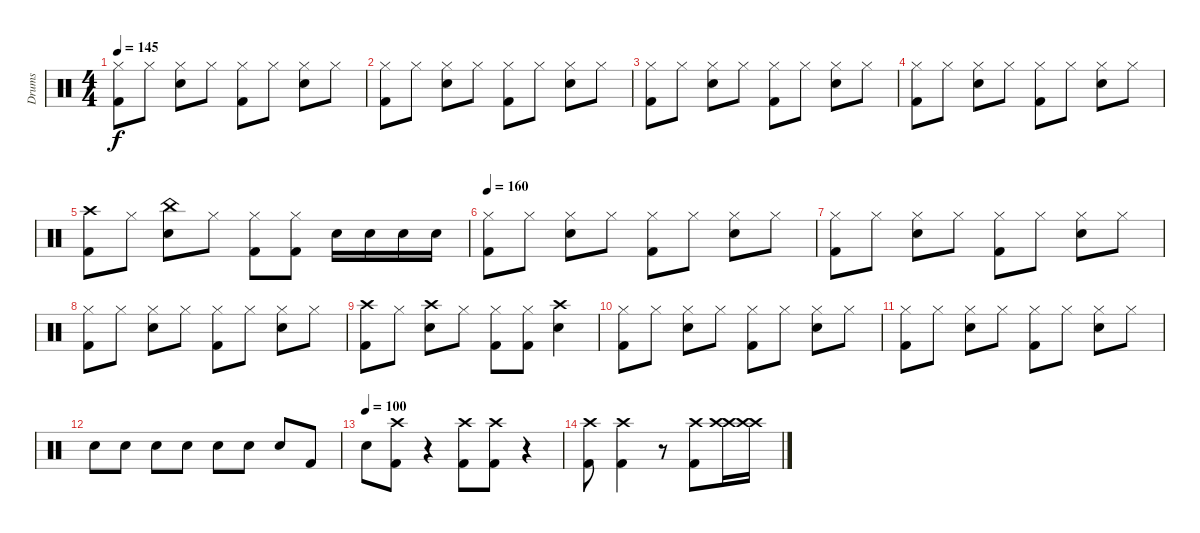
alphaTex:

\track ("Drums" "Drums") {instrument percussion}
\staff {score}
\articulation defaults
\ts (4 4)
\tempo 145
\clef neutral
\ks c
("Hi-Hat (closed)" "Kick (hit) 2").8{dy f} "Hi-Hat (closed)".8 ("Hi-Hat (closed)" "Electric Snare (hit)").8 "Hi-Hat (closed)".8 ("Hi-Hat (closed)" "Kick (hit) 2").8 "Hi-Hat (closed)".8 ("Hi-Hat (closed)" "Electric Snare (hit)").8 "Hi-Hat (closed)".8 |
("Hi-Hat (closed)" "Kick (hit) 2").8 "Hi-Hat (closed)".8 ("Hi-Hat (closed)" "Electric Snare (hit)").8 "Hi-Hat (closed)".8 ("Hi-Hat (closed)" "Kick (hit) 2").8 "Hi-Hat (closed)".8 ("Hi-Hat (closed)" "Electric Snare (hit)").8 "Hi-Hat (closed)".8 |
("Hi-Hat (closed)" "Kick (hit) 2").8 "Hi-Hat (closed)".8 ("Hi-Hat (closed)" "Electric Snare (hit)").8 "Hi-Hat (closed)".8 ("Hi-Hat (closed)" "Kick (hit) 2").8 "Hi-Hat (closed)".8 ("Hi-Hat (closed)" "Electric Snare (hit)").8 "Hi-Hat (closed)".8 |
("Hi-Hat (closed)" "Kick (hit) 2").8 "Hi-Hat (closed)".8 ("Hi-Hat (closed)" "Electric Snare (hit)").8 "Hi-Hat (closed)".8 ("Hi-Hat (closed)" "Kick (hit) 2").8 "Hi-Hat (closed)".8 ("Hi-Hat (closed)" "Electric Snare (hit)").8 "Hi-Hat (closed)".8 |
("Crash high (hit)" "Kick (hit) 2").8 "Hi-Hat (closed)".8 ("China (hit)" "Electric Snare (hit)").8 "Hi-Hat (closed)".8 ("Hi-Hat (closed)" "Kick (hit) 2").8 ("Hi-Hat (closed)" "Kick (hit) 2").8 "Electric Snare (hit)".16 "Electric Snare (hit)".16 "Electric Snare (hit)".16 "Electric Snare (hit)".16 |
\tempo 160
("Hi-Hat (closed)" "Kick (hit) 2").8 "Hi-Hat (closed)".8 ("Hi-Hat (closed)" "Electric Snare (hit)").8 "Hi-Hat (closed)".8 ("Hi-Hat (closed)" "Kick (hit) 2").8 "Hi-Hat (closed)".8 ("Hi-Hat (closed)" "Electric Snare (hit)").8 "Hi-Hat (closed)".8 |
("Hi-Hat (closed)" "Kick (hit) 2").8 "Hi-Hat (closed)".8 ("Hi-Hat (closed)" "Electric Snare (hit)").8 "Hi-Hat (closed)".8 ("Hi-Hat (closed)" "Kick (hit) 2").8 "Hi-Hat (closed)".8 ("Hi-Hat (closed)" "Electric Snare (hit)").8 "Hi-Hat (closed)".8 |
("Hi-Hat (closed)" "Kick (hit) 2").8 "Hi-Hat (closed)".8 ("Hi-Hat (closed)" "Electric Snare (hit)").8 "Hi-Hat (closed)".8 ("Hi-Hat (closed)" "Kick (hit) 2").8 "Hi-Hat (closed)".8 ("Hi-Hat (closed)" "Electric Snare (hit)").8 "Hi-Hat (closed)".8 |
("Crash high (hit)" "Kick (hit) 2").8 "Hi-Hat (closed)".8 ("Crash high (hit)" "Electric Snare (hit)").8 "Hi-Hat (closed)".8 ("Hi-Hat (closed)" "Kick (hit) 2").8 ("Hi-Hat (closed)" "Kick (hit) 2").8 ("Crash high (hit)" "Electric Snare (hit)").4 |
("Hi-Hat (closed)" "Kick (hit) 2").8 "Hi-Hat (closed)".8 ("Hi-Hat (closed)" "Electric Snare (hit)").8 "Hi-Hat (closed)".8 ("Hi-Hat (closed)" "Kick (hit) 2").8 "Hi-Hat (closed)".8 ("Hi-Hat (closed)" "Electric Snare (hit)").8 "Hi-Hat (closed)".8 |
("Hi-Hat (closed)" "Kick (hit) 2").8 "Hi-Hat (closed)".8 ("Hi-Hat (closed)" "Electric Snare (hit)").8 "Hi-Hat (closed)".8 ("Hi-Hat (closed)" "Kick (hit) 2").8 "Hi-Hat (closed)".8 ("Hi-Hat (closed)" "Electric Snare (hit)").8 "Hi-Hat (closed)".8 |
"Electric Snare (hit)".8 "Electric Snare (hit)".8 "Electric Snare (hit)".8 "Electric Snare (hit)".8 "Electric Snare (hit)".8 "Electric Snare (hit)".8 "Electric Snare (hit)".8 "Kick (hit) 2".8 |
\tempo (100)
"Electric Snare (hit)".8 ("Crash high (hit)" "Kick (hit) 2").8 r.4 ("Crash high (hit)" "Kick (hit) 2").8 ("Crash high (hit)" "Kick (hit) 2").8 r.4 |
("Crash high (hit)" "Kick (hit) 2").8 ("Crash high (hit)" "Kick (hit) 2").4 r.8 ("Crash high (hit)" "Kick (hit) 2").8 ("Crash high (hit)" "Crash high (hit)").16 ("Crash high (hit)" "Crash high (hit)").16
